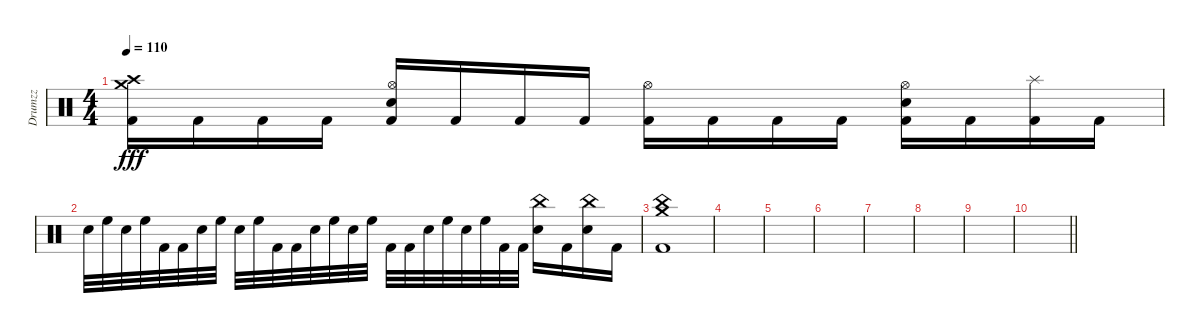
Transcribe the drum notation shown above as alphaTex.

\track ("Drumzz" "Drumzz") {instrument percussion}
\staff {score}
\articulation defaults
\ts (4 4)
\tempo 110
\clef neutral
\ks c
("Crash high (hit)" "Crash medium (hit)" "Kick (hit) 2").16{dy fff} "Kick (hit) 2".16 "Kick (hit) 2".16 "Kick (hit) 2".16 ("Hi-Hat (open)" "Snare (hit) 2" "Kick (hit) 2").16 "Kick (hit) 2".16 "Kick (hit) 2".16 "Kick (hit) 2".16 ("Hi-Hat (open)" "Kick (hit) 2").16 "Kick (hit) 2".16 "Kick (hit) 2".16 "Kick (hit) 2".16 ("Hi-Hat (open)" "Snare (hit) 2" "Kick (hit) 2").16 "Kick (hit) 2".16 ("Splash (hit)" "Kick (hit) 2").16 "Kick (hit) 2".16 |
"Snare (hit) 2".32 "High Floor Tom (hit)".32 "Snare (hit) 2".32 "High Floor Tom (hit)".32 "Kick (hit) 2".32 "Kick (hit) 2".32 "Snare (hit) 2".32 "High Floor Tom (hit)".32 "Snare (hit) 2".32 "High Floor Tom (hit)".32 "Kick (hit) 2".32 "Kick (hit) 2".32 "Snare (hit) 2".32 "High Floor Tom (hit)".32 "Snare (hit) 2".32 "High Floor Tom (hit)".32 "Kick (hit) 2".32 "Kick (hit) 2".32 "Snare (hit) 2".32 "High Floor Tom (hit)".32 "Snare (hit) 2".32 "High Floor Tom (hit)".32 "Kick (hit) 2".32 "Kick (hit) 2".32 ("China (hit)" "Snare (hit) 2").16 "Kick (hit) 2".16 ("China (hit)" "Snare (hit) 2").16 "Kick (hit) 2".16 |
("China (hit)" "Crash medium (hit)" "Kick (hit) 2").1 |
|
|
|
|
|
|
\barLineRight lightlight
